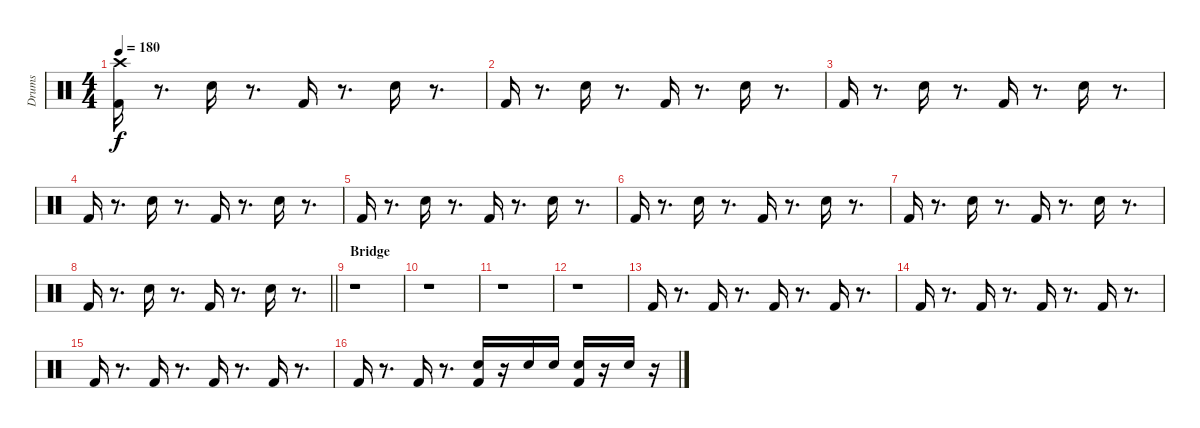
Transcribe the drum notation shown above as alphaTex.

\track ("Drums" "Drums") {instrument percussion}
\staff {score}
\articulation defaults
\ts (4 4)
\tempo 180
\clef neutral
\ks c
("Kick (hit) 2" "Crash high (hit)").16{dy f} r.8{d} "Snare (hit) 2".16 r.8{d} "Kick (hit) 2".16 r.8{d} "Snare (hit) 2".16 r.8{d} |
"Kick (hit) 2".16 r.8{d} "Snare (hit) 2".16 r.8{d} "Kick (hit) 2".16 r.8{d} "Snare (hit) 2".16 r.8{d} |
"Kick (hit) 2".16 r.8{d} "Snare (hit) 2".16 r.8{d} "Kick (hit) 2".16 r.8{d} "Snare (hit) 2".16 r.8{d} |
"Kick (hit) 2".16 r.8{d} "Snare (hit) 2".16 r.8{d} "Kick (hit) 2".16 r.8{d} "Snare (hit) 2".16 r.8{d} |
"Kick (hit) 2".16 r.8{d} "Snare (hit) 2".16 r.8{d} "Kick (hit) 2".16 r.8{d} "Snare (hit) 2".16 r.8{d} |
"Kick (hit) 2".16 r.8{d} "Snare (hit) 2".16 r.8{d} "Kick (hit) 2".16 r.8{d} "Snare (hit) 2".16 r.8{d} |
"Kick (hit) 2".16 r.8{d} "Snare (hit) 2".16 r.8{d} "Kick (hit) 2".16 r.8{d} "Snare (hit) 2".16 r.8{d} |
\barLineRight lightlight "Kick (hit) 2".16
r.8{d} "Snare (hit) 2".16 r.8{d} "Kick (hit) 2".16 r.8{d} "Snare (hit) 2".16 r.8{d} |
\section ("" "Bridge")
r.1 |
r.1 |
r.1 |
r.1 |
"Kick (hit) 2".16 r.8{d} "Kick (hit) 2".16 r.8{d} "Kick (hit) 2".16 r.8{d} "Kick (hit) 2".16 r.8{d} |
"Kick (hit) 2".16 r.8{d} "Kick (hit) 2".16 r.8{d} "Kick (hit) 2".16 r.8{d} "Kick (hit) 2".16 r.8{d} |
"Kick (hit) 2".16 r.8{d} "Kick (hit) 2".16 r.8{d} "Kick (hit) 2".16 r.8{d} "Kick (hit) 2".16 r.8{d} |
"Kick (hit) 2".16 r.8{d} "Kick (hit) 2".16 r.8{d} ("Kick (hit) 2" "Snare (hit) 2").16 r.16 "Snare (hit) 2".16 "Snare (hit) 2".16 ("Kick (hit) 2" "Snare (hit) 2").16 r.16 "Snare (hit) 2".16 r.16
